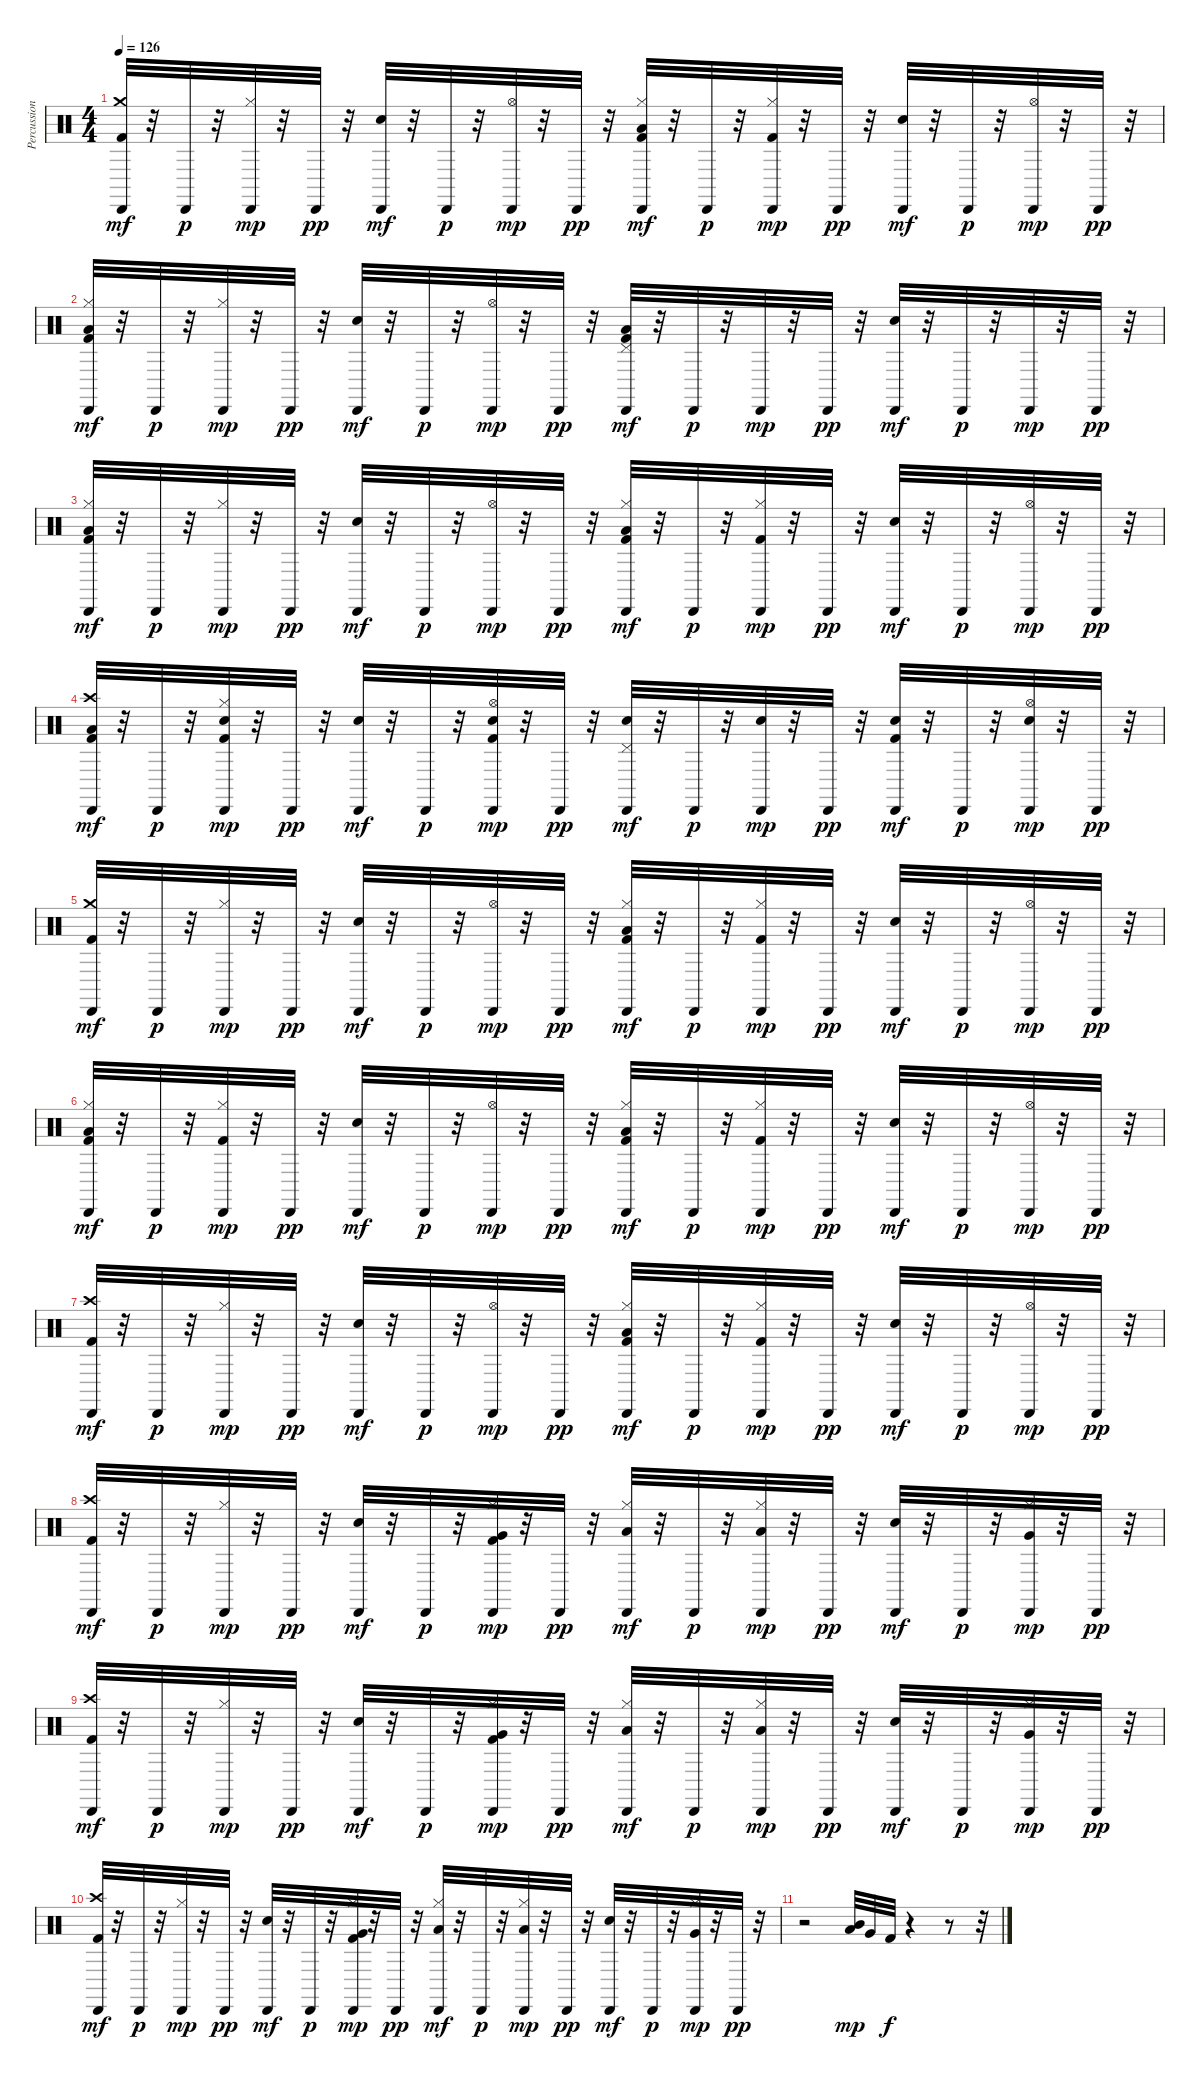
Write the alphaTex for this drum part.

\track ("Percussions" "Percussion") {instrument percussion}
\staff {score}
\articulation defaults
\ts (4 4)
\tempo 126
\clef neutral
\ks c
("Kick (hit) 2" "Crash medium (hit)" "Cabasa (hit)").32{dy mf} r.32 "Cabasa (hit)".32{dy p} r.32 ("Hi-Hat (closed)" "Cabasa (hit)").32{dy mp} r.32 "Cabasa (hit)".32{dy pp} r.32 ("Electric Snare (hit)" "Cabasa (hit)").32{dy mf} r.32 "Cabasa (hit)".32{dy p} r.32 ("Hi-Hat (open)" "Cabasa (hit)").32{dy mp} r.32 "Cabasa (hit)".32{dy pp} r.32 ("Kick (hit) 2" "Hi-Hat (closed)" "Low Tom (hit)" "Cabasa (hit)").32{dy mf} r.32 "Cabasa (hit)".32{dy p} r.32 ("Kick (hit) 2" "Hi-Hat (closed)" "Cabasa (hit)").32{dy mp} r.32 "Cabasa (hit)".32{dy pp} r.32 ("Electric Snare (hit)" "Cabasa (hit)").32{dy mf} r.32 "Cabasa (hit)".32{dy p} r.32 ("Hi-Hat (open)" "Cabasa (hit)").32{dy mp} r.32 "Cabasa (hit)".32{dy pp} r.32 |
("Kick (hit) 2" "Hi-Hat (closed)" "Low Tom (hit)" "Cabasa (hit)").32{dy mf} r.32 "Cabasa (hit)".32{dy p} r.32 ("Hi-Hat (closed)" "Cabasa (hit)").32{dy mp} r.32 "Cabasa (hit)".32{dy pp} r.32 ("Electric Snare (hit)" "Cabasa (hit)").32{dy mf} r.32 "Cabasa (hit)".32{dy p} r.32 ("Hi-Hat (open)" "Cabasa (hit)").32{dy mp} r.32 "Cabasa (hit)".32{dy pp} r.32 ("Kick (hit) 2" "Pedal Hi-Hat (hit)" "Low Tom (hit)" "Cabasa (hit)").32{dy mf} r.32 "Cabasa (hit)".32{dy p} r.32 "Cabasa (hit)".32{dy mp} r.32 "Cabasa (hit)".32{dy pp} r.32 ("Electric Snare (hit)" "Cabasa (hit)").32{dy mf} r.32 "Cabasa (hit)".32{dy p} r.32 "Cabasa (hit)".32{dy mp} r.32 "Cabasa (hit)".32{dy pp} r.32 |
("Kick (hit) 2" "Hi-Hat (closed)" "Low Tom (hit)" "Cabasa (hit)").32{dy mf} r.32 "Cabasa (hit)".32{dy p} r.32 ("Hi-Hat (closed)" "Cabasa (hit)").32{dy mp} r.32 "Cabasa (hit)".32{dy pp} r.32 ("Electric Snare (hit)" "Cabasa (hit)").32{dy mf} r.32 "Cabasa (hit)".32{dy p} r.32 ("Hi-Hat (open)" "Cabasa (hit)").32{dy mp} r.32 "Cabasa (hit)".32{dy pp} r.32 ("Kick (hit) 2" "Hi-Hat (closed)" "Low Tom (hit)" "Cabasa (hit)").32{dy mf} r.32 "Cabasa (hit)".32{dy p} r.32 ("Kick (hit) 2" "Hi-Hat (closed)" "Cabasa (hit)").32{dy mp} r.32 "Cabasa (hit)".32{dy pp} r.32 ("Electric Snare (hit)" "Cabasa (hit)").32{dy mf} r.32 "Cabasa (hit)".32{dy p} r.32 ("Hi-Hat (open)" "Cabasa (hit)").32{dy mp} r.32 "Cabasa (hit)".32{dy pp} r.32 |
("Kick (hit) 2" "Low Tom (hit)" "Crash high (hit)" "Cabasa (hit)").32{dy mf} r.32 "Cabasa (hit)".32{dy p} r.32 ("Kick (hit) 2" "Electric Snare (hit)" "Hi-Hat (closed)" "Cabasa (hit)").32{dy mp} r.32 "Cabasa (hit)".32{dy pp} r.32 ("Electric Snare (hit)" "Cabasa (hit)").32{dy mf} r.32 "Cabasa (hit)".32{dy p} r.32 ("Kick (hit) 2" "Electric Snare (hit)" "Hi-Hat (open)" "Cabasa (hit)").32{dy mp} r.32 "Cabasa (hit)".32{dy pp} r.32 ("Electric Snare (hit)" "Pedal Hi-Hat (hit)" "Cabasa (hit)").32{dy mf} r.32 "Cabasa (hit)".32{dy p} r.32 ("Electric Snare (hit)" "Cabasa (hit)").32{dy mp} r.32 "Cabasa (hit)".32{dy pp} r.32 ("Kick (hit) 2" "Electric Snare (hit)" "Cabasa (hit)").32{dy mf} r.32 "Cabasa (hit)".32{dy p} r.32 ("Electric Snare (hit)" "Hi-Hat (open)" "Cabasa (hit)").32{dy mp} r.32 "Cabasa (hit)".32{dy pp} r.32 |
("Kick (hit) 2" "Crash medium (hit)" "Cabasa (hit)").32{dy mf} r.32 "Cabasa (hit)".32{dy p} r.32 ("Hi-Hat (closed)" "Cabasa (hit)").32{dy mp} r.32 "Cabasa (hit)".32{dy pp} r.32 ("Electric Snare (hit)" "Cabasa (hit)").32{dy mf} r.32 "Cabasa (hit)".32{dy p} r.32 ("Hi-Hat (open)" "Cabasa (hit)").32{dy mp} r.32 "Cabasa (hit)".32{dy pp} r.32 ("Kick (hit) 2" "Hi-Hat (closed)" "Low Tom (hit)" "Cabasa (hit)").32{dy mf} r.32 "Cabasa (hit)".32{dy p} r.32 ("Kick (hit) 2" "Hi-Hat (closed)" "Cabasa (hit)").32{dy mp} r.32 "Cabasa (hit)".32{dy pp} r.32 ("Electric Snare (hit)" "Cabasa (hit)").32{dy mf} r.32 "Cabasa (hit)".32{dy p} r.32 ("Hi-Hat (open)" "Cabasa (hit)").32{dy mp} r.32 "Cabasa (hit)".32{dy pp} r.32 |
("Kick (hit) 2" "Hi-Hat (closed)" "Low Tom (hit)" "Cabasa (hit)").32{dy mf} r.32 "Cabasa (hit)".32{dy p} r.32 ("Kick (hit) 2" "Hi-Hat (closed)" "Cabasa (hit)").32{dy mp} r.32 "Cabasa (hit)".32{dy pp} r.32 ("Electric Snare (hit)" "Cabasa (hit)").32{dy mf} r.32 "Cabasa (hit)".32{dy p} r.32 ("Hi-Hat (open)" "Cabasa (hit)").32{dy mp} r.32 "Cabasa (hit)".32{dy pp} r.32 ("Kick (hit) 2" "Hi-Hat (closed)" "Low Tom (hit)" "Cabasa (hit)").32{dy mf} r.32 "Cabasa (hit)".32{dy p} r.32 ("Kick (hit) 2" "Hi-Hat (closed)" "Cabasa (hit)").32{dy mp} r.32 "Cabasa (hit)".32{dy pp} r.32 ("Electric Snare (hit)" "Cabasa (hit)").32{dy mf} r.32 "Cabasa (hit)".32{dy p} r.32 ("Hi-Hat (open)" "Cabasa (hit)").32{dy mp} r.32 "Cabasa (hit)".32{dy pp} r.32 |
("Kick (hit) 2" "Crash high (hit)" "Cabasa (hit)").32{dy mf} r.32 "Cabasa (hit)".32{dy p} r.32 ("Hi-Hat (closed)" "Cabasa (hit)").32{dy mp} r.32 "Cabasa (hit)".32{dy pp} r.32 ("Electric Snare (hit)" "Cabasa (hit)").32{dy mf} r.32 "Cabasa (hit)".32{dy p} r.32 ("Hi-Hat (open)" "Cabasa (hit)").32{dy mp} r.32 "Cabasa (hit)".32{dy pp} r.32 ("Kick (hit) 2" "Hi-Hat (closed)" "Low Tom (hit)" "Cabasa (hit)").32{dy mf} r.32 "Cabasa (hit)".32{dy p} r.32 ("Kick (hit) 2" "Hi-Hat (closed)" "Cabasa (hit)").32{dy mp} r.32 "Cabasa (hit)".32{dy pp} r.32 ("Electric Snare (hit)" "Cabasa (hit)").32{dy mf} r.32 "Cabasa (hit)".32{dy p} r.32 ("Hi-Hat (open)" "Cabasa (hit)").32{dy mp} r.32 "Cabasa (hit)".32{dy pp} r.32 |
("Kick (hit) 2" "Crash high (hit)" "Cabasa (hit)").32{dy mf} r.32 "Cabasa (hit)".32{dy p} r.32 ("Hi-Hat (closed)" "Cabasa (hit)").32{dy mp} r.32 "Cabasa (hit)".32{dy pp} r.32 ("Electric Snare (hit)" "Cabasa (hit)").32{dy mf} r.32 "Cabasa (hit)".32{dy p} r.32 ("Kick (hit) 2" "Hi-Hat (closed)" "Very Low Tom (hit)" "Cabasa (hit)").32{dy mp} r.32 "Cabasa (hit)".32{dy pp} r.32 ("Hi-Hat (closed)" "Low Tom (hit)" "Cabasa (hit)").32{dy mf} r.32 "Cabasa (hit)".32{dy p} r.32 ("Hi-Hat (closed)" "Low Tom (hit)" "Cabasa (hit)").32{dy mp} r.32 "Cabasa (hit)".32{dy pp} r.32 ("Electric Snare (hit)" "Cabasa (hit)").32{dy mf} r.32 "Cabasa (hit)".32{dy p} r.32 ("Hi-Hat (closed)" "Very Low Tom (hit)" "Cabasa (hit)").32{dy mp} r.32 "Cabasa (hit)".32{dy pp} r.32 |
("Kick (hit) 2" "Crash high (hit)" "Cabasa (hit)").32{dy mf} r.32 "Cabasa (hit)".32{dy p} r.32 ("Hi-Hat (closed)" "Cabasa (hit)").32{dy mp} r.32 "Cabasa (hit)".32{dy pp} r.32 ("Electric Snare (hit)" "Cabasa (hit)").32{dy mf} r.32 "Cabasa (hit)".32{dy p} r.32 ("Kick (hit) 2" "Hi-Hat (closed)" "Very Low Tom (hit)" "Cabasa (hit)").32{dy mp} r.32 "Cabasa (hit)".32{dy pp} r.32 ("Hi-Hat (closed)" "Low Tom (hit)" "Cabasa (hit)").32{dy mf} r.32 "Cabasa (hit)".32{dy p} r.32 ("Hi-Hat (closed)" "Low Tom (hit)" "Cabasa (hit)").32{dy mp} r.32 "Cabasa (hit)".32{dy pp} r.32 ("Electric Snare (hit)" "Cabasa (hit)").32{dy mf} r.32 "Cabasa (hit)".32{dy p} r.32 ("Hi-Hat (closed)" "Very Low Tom (hit)" "Cabasa (hit)").32{dy mp} r.32 "Cabasa (hit)".32{dy pp} r.32 |
("Kick (hit) 2" "Crash high (hit)" "Cabasa (hit)").32{dy mf} r.32 "Cabasa (hit)".32{dy p} r.32 ("Hi-Hat (closed)" "Cabasa (hit)").32{dy mp} r.32 "Cabasa (hit)".32{dy pp} r.32 ("Electric Snare (hit)" "Cabasa (hit)").32{dy mf} r.32 "Cabasa (hit)".32{dy p} r.32 ("Kick (hit) 2" "Hi-Hat (closed)" "Very Low Tom (hit)" "Cabasa (hit)").32{dy mp} r.32 "Cabasa (hit)".32{dy pp} r.32 ("Hi-Hat (closed)" "Low Tom (hit)" "Cabasa (hit)").32{dy mf} r.32 "Cabasa (hit)".32{dy p} r.32 ("Hi-Hat (closed)" "Low Tom (hit)" "Cabasa (hit)").32{dy mp} r.32 "Cabasa (hit)".32{dy pp} r.32 ("Electric Snare (hit)" "Cabasa (hit)").32{dy mf} r.32 "Cabasa (hit)".32{dy p} r.32 ("Hi-Hat (closed)" "Very Low Tom (hit)" "Cabasa (hit)").32{dy mp} r.32 "Cabasa (hit)".32{dy pp} r.32 |
r.2 ("Mid Tom (hit)" "Low Tom (hit)").32{dy mp} "Very Low Tom (hit)".32 "Kick (hit) 2".32{dy f} r.4 r.8 r.32
